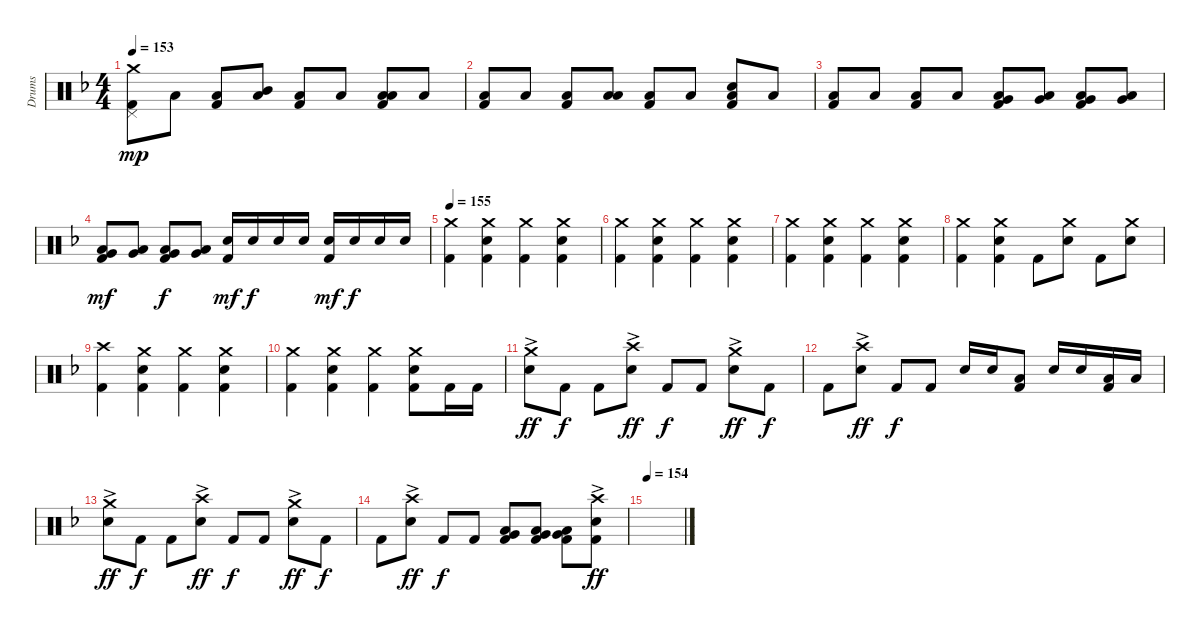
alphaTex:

\track ("Drums" "Drums") {instrument percussion}
\staff {score}
\articulation defaults
\ts (4 4)
\tempo 153
\clef neutral
\ks dminor
("Crash medium (hit)" "Pedal Hi-Hat (hit)" "Kick (hit) 2").8{dy mp} "Low Floor Tom (hit)".8 ("Low Floor Tom (hit)" "Kick (hit) 2").8 ("Mid Tom (hit)" "Low Floor Tom (hit)").8 ("Low Floor Tom (hit)" "Kick (hit) 2").8 "Low Floor Tom (hit)".8 ("Low Tom (hit)" "Low Floor Tom (hit)" "Kick (hit) 2").8 "Low Floor Tom (hit)".8 |
("Low Floor Tom (hit)" "Kick (hit) 2").8 "Low Floor Tom (hit)".8 ("Low Floor Tom (hit)" "Kick (hit) 2").8 ("Low Tom (hit)" "Low Floor Tom (hit)").8 ("Low Floor Tom (hit)" "Kick (hit) 2").8 "Low Floor Tom (hit)".8 ("Snare (hit) 2" "Low Floor Tom (hit)" "Kick (hit) 2").8 "Low Floor Tom (hit)".8 |
("Low Floor Tom (hit)" "Kick (hit) 2").8 "Low Floor Tom (hit)".8 ("Low Floor Tom (hit)" "Kick (hit) 2").8 "Low Floor Tom (hit)".8 ("Very Low Tom (hit)" "Low Floor Tom (hit)" "Kick (hit) 2").8 ("Very Low Tom (hit)" "Low Floor Tom (hit)").8 ("Very Low Tom (hit)" "Low Floor Tom (hit)" "Kick (hit) 2").8 ("Very Low Tom (hit)" "Low Floor Tom (hit)").8 |
("Very Low Tom (hit)" "Low Floor Tom (hit)" "Kick (hit) 2").8{dy mf} ("Very Low Tom (hit)" "Low Floor Tom (hit)").8 ("Very Low Tom (hit)" "Low Floor Tom (hit)" "Kick (hit) 2").8{dy f} ("Very Low Tom (hit)" "Low Floor Tom (hit)").8 ("Snare (hit) 2" "Kick (hit) 2").16{dy mf} "Snare (hit) 2".16{dy f} "Snare (hit) 2".16 "Snare (hit) 2".16 ("Snare (hit) 2" "Kick (hit) 2").16{dy mf} "Snare (hit) 2".16{dy f} "Snare (hit) 2".16 "Snare (hit) 2".16 |
\tempo 155
("Crash medium (hit)" "Kick (hit) 2").4 ("Crash medium (hit)" "Snare (hit) 2" "Kick (hit) 2").4 ("Crash medium (hit)" "Kick (hit) 2").4 ("Crash medium (hit)" "Snare (hit) 2" "Kick (hit) 2").4 |
("Crash medium (hit)" "Kick (hit) 2").4 ("Crash medium (hit)" "Snare (hit) 2" "Kick (hit) 2").4 ("Crash medium (hit)" "Kick (hit) 2").4 ("Crash medium (hit)" "Snare (hit) 2" "Kick (hit) 2").4 |
("Crash medium (hit)" "Kick (hit) 2").4 ("Crash medium (hit)" "Snare (hit) 2" "Kick (hit) 2").4 ("Crash medium (hit)" "Kick (hit) 2").4 ("Crash medium (hit)" "Snare (hit) 2" "Kick (hit) 2").4 |
("Crash medium (hit)" "Kick (hit) 2").4 ("Crash medium (hit)" "Snare (hit) 2" "Kick (hit) 2").4 "Kick (hit) 2".8 ("Crash medium (hit)" "Snare (hit) 2").8 "Kick (hit) 2".8 ("Crash medium (hit)" "Snare (hit) 2").8 |
("Crash high (hit)" "Kick (hit) 2").4 ("Crash medium (hit)" "Snare (hit) 2" "Kick (hit) 2").4 ("Crash medium (hit)" "Kick (hit) 2").4 ("Crash medium (hit)" "Snare (hit) 2" "Kick (hit) 2").4 |
("Crash medium (hit)" "Kick (hit) 2").4 ("Crash medium (hit)" "Snare (hit) 2" "Kick (hit) 2").4 ("Crash medium (hit)" "Kick (hit) 2").4 ("Crash medium (hit)" "Snare (hit) 2" "Kick (hit) 2").8 "Kick (hit) 2".16 "Kick (hit) 2".16 |
("Crash medium (hit)"{ac} "Snare (hit) 2").8{dy ff} "Kick (hit) 2".8{dy f} "Kick (hit) 2".8 ("Crash high (hit)"{ac} "Snare (hit) 2").8{dy ff} "Kick (hit) 2".8{dy f} "Kick (hit) 2".8 ("Crash medium (hit)"{ac} "Snare (hit) 2").8{dy ff} "Kick (hit) 2".8{dy f} |
"Kick (hit) 2".8 ("Crash high (hit)"{ac} "Snare (hit) 2").8{dy ff} "Kick (hit) 2".8{dy f} "Kick (hit) 2".8 "Snare (hit) 2".16 "Snare (hit) 2".16 ("Low Tom (hit)" "Kick (hit) 2").8 "Snare (hit) 2".16 "Snare (hit) 2".16 ("Low Tom (hit)" "Kick (hit) 2").16 "Low Floor Tom (hit)".16 |
("Crash medium (hit)"{ac} "Snare (hit) 2").8{dy ff} "Kick (hit) 2".8{dy f} "Kick (hit) 2".8 ("Crash high (hit)"{ac} "Snare (hit) 2").8{dy ff} "Kick (hit) 2".8{dy f} "Kick (hit) 2".8 ("Crash medium (hit)"{ac} "Snare (hit) 2").8{dy ff} "Kick (hit) 2".8{dy f} |
"Kick (hit) 2".8 ("Crash high (hit)"{ac} "Snare (hit) 2").8{dy ff} "Kick (hit) 2".8{dy f} "Kick (hit) 2".8 ("Very Low Tom (hit)" "Low Floor Tom (hit)" "Kick (hit) 2").8 ("Very Low Tom (hit)" "Low Floor Tom (hit)" "Kick (hit) 2").8 ("Very Low Tom (hit)" "Low Floor Tom (hit)" "Kick (hit) 2").8 ("Crash high (hit)"{ac} "Snare (hit) 2" "Kick (hit) 2").8{dy ff} |
\tempo 154
